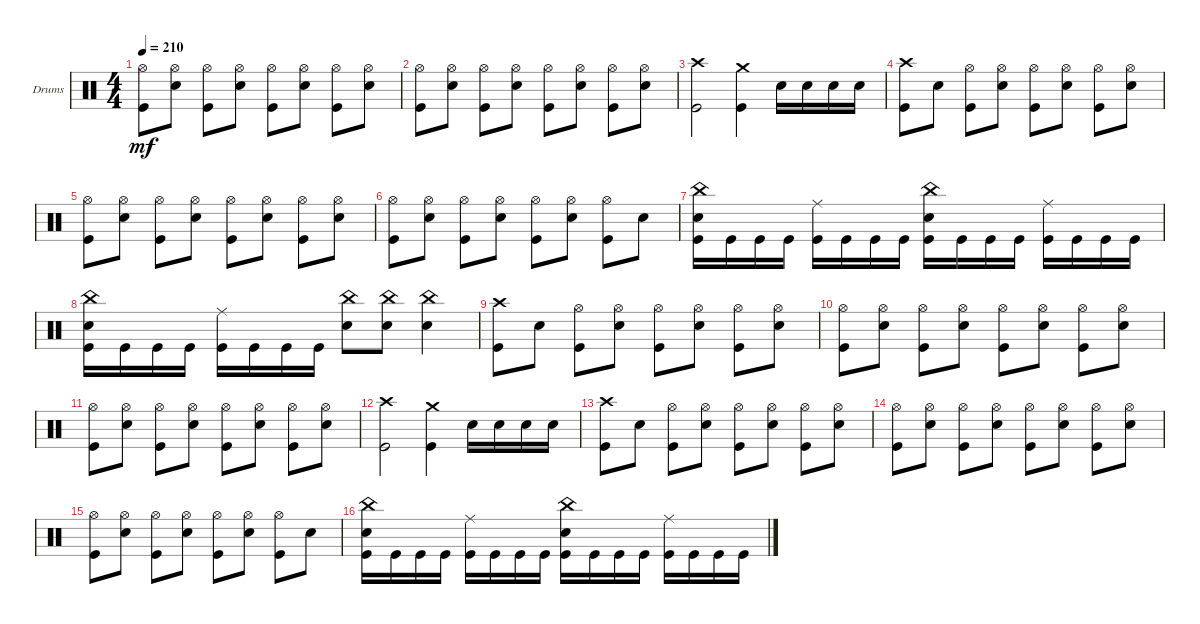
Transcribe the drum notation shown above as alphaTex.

\bracketExtendMode groupsimilarinstruments
\firstSystemTrackNameOrientation horizontal
\otherSystemsTrackNameOrientation horizontal
\track ("Drumkit" "Drums") {instrument percussion}
\staff {score}
\articulation defaults
\ts (4 4)
\tempo 210
\clef neutral
\ks c
("Hi-Hat (open)" "Kick (hit)").8{dy mf} ("Hi-Hat (open)" "Snare (hit) 2").8 ("Hi-Hat (open)" "Kick (hit)").8 ("Hi-Hat (open)" "Snare (hit) 2").8 ("Hi-Hat (open)" "Kick (hit)").8 ("Hi-Hat (open)" "Snare (hit) 2").8 ("Hi-Hat (open)" "Kick (hit)").8 ("Hi-Hat (open)" "Snare (hit) 2").8 |
("Hi-Hat (open)" "Kick (hit)").8 ("Hi-Hat (open)" "Snare (hit) 2").8 ("Hi-Hat (open)" "Kick (hit)").8 ("Hi-Hat (open)" "Snare (hit) 2").8 ("Hi-Hat (open)" "Kick (hit)").8 ("Hi-Hat (open)" "Snare (hit) 2").8 ("Hi-Hat (open)" "Kick (hit)").8 ("Hi-Hat (open)" "Snare (hit) 2").8 |
("Kick (hit)" "Crash high (hit)").2 ("Kick (hit)" "Crash medium (hit)").4 "Snare (hit) 2".16 "Snare (hit) 2".16 "Snare (hit) 2".16 "Snare (hit) 2".16 |
("Kick (hit)" "Crash high (hit)").8 "Snare (hit) 2".8 ("Hi-Hat (open)" "Kick (hit)").8 ("Hi-Hat (open)" "Snare (hit) 2").8 ("Hi-Hat (open)" "Kick (hit)").8 ("Hi-Hat (open)" "Snare (hit) 2").8 ("Hi-Hat (open)" "Kick (hit)").8 ("Hi-Hat (open)" "Snare (hit) 2").8 |
("Hi-Hat (open)" "Kick (hit)").8 ("Hi-Hat (open)" "Snare (hit) 2").8 ("Hi-Hat (open)" "Kick (hit)").8 ("Hi-Hat (open)" "Snare (hit) 2").8 ("Hi-Hat (open)" "Kick (hit)").8 ("Hi-Hat (open)" "Snare (hit) 2").8 ("Hi-Hat (open)" "Kick (hit)").8 ("Hi-Hat (open)" "Snare (hit) 2").8 |
("Hi-Hat (open)" "Kick (hit)").8 ("Hi-Hat (open)" "Snare (hit) 2").8 ("Hi-Hat (open)" "Kick (hit)").8 ("Hi-Hat (open)" "Snare (hit) 2").8 ("Hi-Hat (open)" "Kick (hit)").8 ("Hi-Hat (open)" "Snare (hit) 2").8 ("Hi-Hat (open)" "Kick (hit)").8 "Snare (hit) 2".8 |
("Snare (hit) 2" "Kick (hit)" "China (hit)").16 "Kick (hit)".16 "Kick (hit)".16 "Kick (hit)".16 ("Kick (hit)" "Ride (middle)").16 "Kick (hit)".16 "Kick (hit)".16 "Kick (hit)".16 ("Kick (hit)" "Snare (hit) 2" "China (hit)").16 "Kick (hit)".16 "Kick (hit)".16 "Kick (hit)".16 ("Kick (hit)" "Ride (middle)").16 "Kick (hit)".16 "Kick (hit)".16 "Kick (hit)".16 |
("Snare (hit) 2" "Kick (hit)" "China (hit)").16 "Kick (hit)".16 "Kick (hit)".16 "Kick (hit)".16 ("Kick (hit)" "Ride (middle)").16 "Kick (hit)".16 "Kick (hit)".16 "Kick (hit)".16 ("Snare (hit) 2" "China (hit)").8 ("Snare (hit) 2" "China (hit)").8 ("Snare (hit) 2" "China (hit)").4 |
("Kick (hit)" "Crash high (hit)").8 "Snare (hit) 2".8 ("Hi-Hat (open)" "Kick (hit)").8 ("Hi-Hat (open)" "Snare (hit) 2").8 ("Hi-Hat (open)" "Kick (hit)").8 ("Hi-Hat (open)" "Snare (hit) 2").8 ("Hi-Hat (open)" "Kick (hit)").8 ("Hi-Hat (open)" "Snare (hit) 2").8 |
("Hi-Hat (open)" "Kick (hit)").8 ("Hi-Hat (open)" "Snare (hit) 2").8 ("Hi-Hat (open)" "Kick (hit)").8 ("Hi-Hat (open)" "Snare (hit) 2").8 ("Hi-Hat (open)" "Kick (hit)").8 ("Hi-Hat (open)" "Snare (hit) 2").8 ("Hi-Hat (open)" "Kick (hit)").8 ("Hi-Hat (open)" "Snare (hit) 2").8 |
("Hi-Hat (open)" "Kick (hit)").8 ("Hi-Hat (open)" "Snare (hit) 2").8 ("Hi-Hat (open)" "Kick (hit)").8 ("Hi-Hat (open)" "Snare (hit) 2").8 ("Hi-Hat (open)" "Kick (hit)").8 ("Hi-Hat (open)" "Snare (hit) 2").8 ("Hi-Hat (open)" "Kick (hit)").8 ("Hi-Hat (open)" "Snare (hit) 2").8 |
("Kick (hit)" "Crash high (hit)").2 ("Kick (hit)" "Crash medium (hit)").4 "Snare (hit) 2".16 "Snare (hit) 2".16 "Snare (hit) 2".16 "Snare (hit) 2".16 |
("Kick (hit)" "Crash high (hit)").8 "Snare (hit) 2".8 ("Hi-Hat (open)" "Kick (hit)").8 ("Hi-Hat (open)" "Snare (hit) 2").8 ("Hi-Hat (open)" "Kick (hit)").8 ("Hi-Hat (open)" "Snare (hit) 2").8 ("Hi-Hat (open)" "Kick (hit)").8 ("Hi-Hat (open)" "Snare (hit) 2").8 |
("Hi-Hat (open)" "Kick (hit)").8 ("Hi-Hat (open)" "Snare (hit) 2").8 ("Hi-Hat (open)" "Kick (hit)").8 ("Hi-Hat (open)" "Snare (hit) 2").8 ("Hi-Hat (open)" "Kick (hit)").8 ("Hi-Hat (open)" "Snare (hit) 2").8 ("Hi-Hat (open)" "Kick (hit)").8 ("Hi-Hat (open)" "Snare (hit) 2").8 |
("Hi-Hat (open)" "Kick (hit)").8 ("Hi-Hat (open)" "Snare (hit) 2").8 ("Hi-Hat (open)" "Kick (hit)").8 ("Hi-Hat (open)" "Snare (hit) 2").8 ("Hi-Hat (open)" "Kick (hit)").8 ("Hi-Hat (open)" "Snare (hit) 2").8 ("Hi-Hat (open)" "Kick (hit)").8 "Snare (hit) 2".8 |
("Snare (hit) 2" "Kick (hit)" "China (hit)").16 "Kick (hit)".16 "Kick (hit)".16 "Kick (hit)".16 ("Kick (hit)" "Ride (middle)").16 "Kick (hit)".16 "Kick (hit)".16 "Kick (hit)".16 ("Kick (hit)" "Snare (hit) 2" "China (hit)").16 "Kick (hit)".16 "Kick (hit)".16 "Kick (hit)".16 ("Kick (hit)" "Ride (middle)").16 "Kick (hit)".16 "Kick (hit)".16 "Kick (hit)".16
